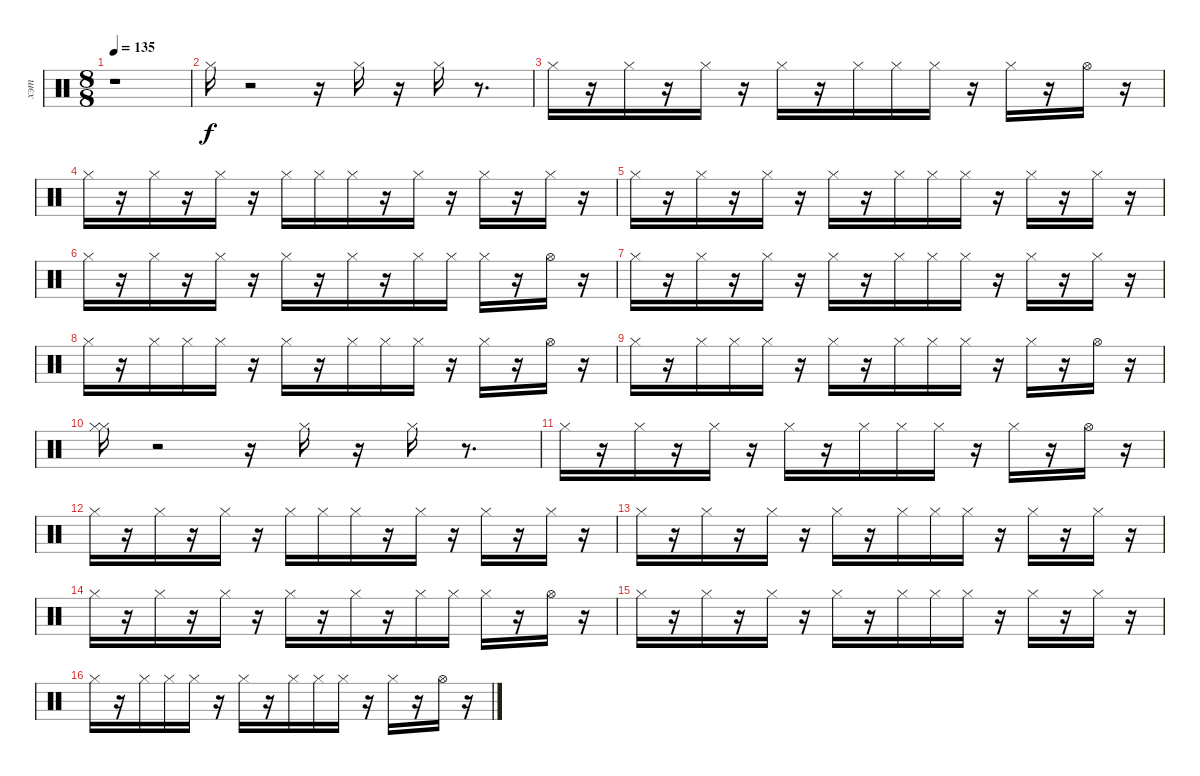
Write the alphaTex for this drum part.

\track ("хэт" "хэт") {instrument percussion}
\staff {score}
\articulation defaults
\ts (8 8)
\tempo 135
\clef neutral
\ks c
r.1{dy f} |
"Hi-Hat (closed)".16 r.2 r.16 "Hi-Hat (closed)".16 r.16 "Hi-Hat (closed)".16 r.8{d} |
"Hi-Hat (closed)".16 r.16 "Hi-Hat (closed)".16 r.16 "Hi-Hat (closed)".16 r.16 "Hi-Hat (closed)".16 r.16 "Hi-Hat (closed)".16 "Hi-Hat (closed)".16 "Hi-Hat (closed)".16 r.16 "Hi-Hat (closed)".16 r.16 "Hi-Hat (open)".16 r.16 |
"Hi-Hat (closed)".16 r.16 "Hi-Hat (closed)".16 r.16 "Hi-Hat (closed)".16 r.16 "Hi-Hat (closed)".16 "Hi-Hat (closed)".16 "Hi-Hat (closed)".16 r.16 "Hi-Hat (closed)".16 r.16 "Hi-Hat (closed)".16 r.16 "Hi-Hat (closed)".16 r.16 |
"Hi-Hat (closed)".16 r.16 "Hi-Hat (closed)".16 r.16 "Hi-Hat (closed)".16 r.16 "Hi-Hat (closed)".16 r.16 "Hi-Hat (closed)".16 "Hi-Hat (closed)".16 "Hi-Hat (closed)".16 r.16 "Hi-Hat (closed)".16 r.16 "Hi-Hat (closed)".16 r.16 |
"Hi-Hat (closed)".16 r.16 "Hi-Hat (closed)".16 r.16 "Hi-Hat (closed)".16 r.16 "Hi-Hat (closed)".16 r.16 "Hi-Hat (closed)".16 r.16 "Hi-Hat (closed)".16 "Hi-Hat (closed)".16 "Hi-Hat (closed)".16 r.16 "Hi-Hat (open)".16 r.16 |
"Hi-Hat (closed)".16 r.16 "Hi-Hat (closed)".16 r.16 "Hi-Hat (closed)".16 r.16 "Hi-Hat (closed)".16 r.16 "Hi-Hat (closed)".16 "Hi-Hat (closed)".16 "Hi-Hat (closed)".16 r.16 "Hi-Hat (closed)".16 r.16 "Hi-Hat (closed)".16 r.16 |
"Hi-Hat (closed)".16 r.16 "Hi-Hat (closed)".16 "Hi-Hat (closed)".16 "Hi-Hat (closed)".16 r.16 "Hi-Hat (closed)".16 r.16 "Hi-Hat (closed)".16 "Hi-Hat (closed)".16 "Hi-Hat (closed)".16 r.16 "Hi-Hat (closed)".16 r.16 "Hi-Hat (open)".16 r.16 |
"Hi-Hat (closed)".16 r.16 "Hi-Hat (closed)".16 "Hi-Hat (closed)".16 "Hi-Hat (closed)".16 r.16 "Hi-Hat (closed)".16 r.16 "Hi-Hat (closed)".16 "Hi-Hat (closed)".16 "Hi-Hat (closed)".16 r.16 "Hi-Hat (closed)".16 r.16 "Hi-Hat (open)".16 r.16 |
("Hi-Hat (closed)" "Hi-Hat (closed)").16 r.2 r.16 "Hi-Hat (closed)".16 r.16 "Hi-Hat (closed)".16 r.8{d} |
"Hi-Hat (closed)".16 r.16 "Hi-Hat (closed)".16 r.16 "Hi-Hat (closed)".16 r.16 "Hi-Hat (closed)".16 r.16 "Hi-Hat (closed)".16 "Hi-Hat (closed)".16 "Hi-Hat (closed)".16 r.16 "Hi-Hat (closed)".16 r.16 "Hi-Hat (open)".16 r.16 |
"Hi-Hat (closed)".16 r.16 "Hi-Hat (closed)".16 r.16 "Hi-Hat (closed)".16 r.16 "Hi-Hat (closed)".16 "Hi-Hat (closed)".16 "Hi-Hat (closed)".16 r.16 "Hi-Hat (closed)".16 r.16 "Hi-Hat (closed)".16 r.16 "Hi-Hat (closed)".16 r.16 |
"Hi-Hat (closed)".16 r.16 "Hi-Hat (closed)".16 r.16 "Hi-Hat (closed)".16 r.16 "Hi-Hat (closed)".16 r.16 "Hi-Hat (closed)".16 "Hi-Hat (closed)".16 "Hi-Hat (closed)".16 r.16 "Hi-Hat (closed)".16 r.16 "Hi-Hat (closed)".16 r.16 |
"Hi-Hat (closed)".16 r.16 "Hi-Hat (closed)".16 r.16 "Hi-Hat (closed)".16 r.16 "Hi-Hat (closed)".16 r.16 "Hi-Hat (closed)".16 r.16 "Hi-Hat (closed)".16 "Hi-Hat (closed)".16 "Hi-Hat (closed)".16 r.16 "Hi-Hat (open)".16 r.16 |
"Hi-Hat (closed)".16 r.16 "Hi-Hat (closed)".16 r.16 "Hi-Hat (closed)".16 r.16 "Hi-Hat (closed)".16 r.16 "Hi-Hat (closed)".16 "Hi-Hat (closed)".16 "Hi-Hat (closed)".16 r.16 "Hi-Hat (closed)".16 r.16 "Hi-Hat (closed)".16 r.16 |
"Hi-Hat (closed)".16 r.16 "Hi-Hat (closed)".16 "Hi-Hat (closed)".16 "Hi-Hat (closed)".16 r.16 "Hi-Hat (closed)".16 r.16 "Hi-Hat (closed)".16 "Hi-Hat (closed)".16 "Hi-Hat (closed)".16 r.16 "Hi-Hat (closed)".16 r.16 "Hi-Hat (open)".16 r.16
